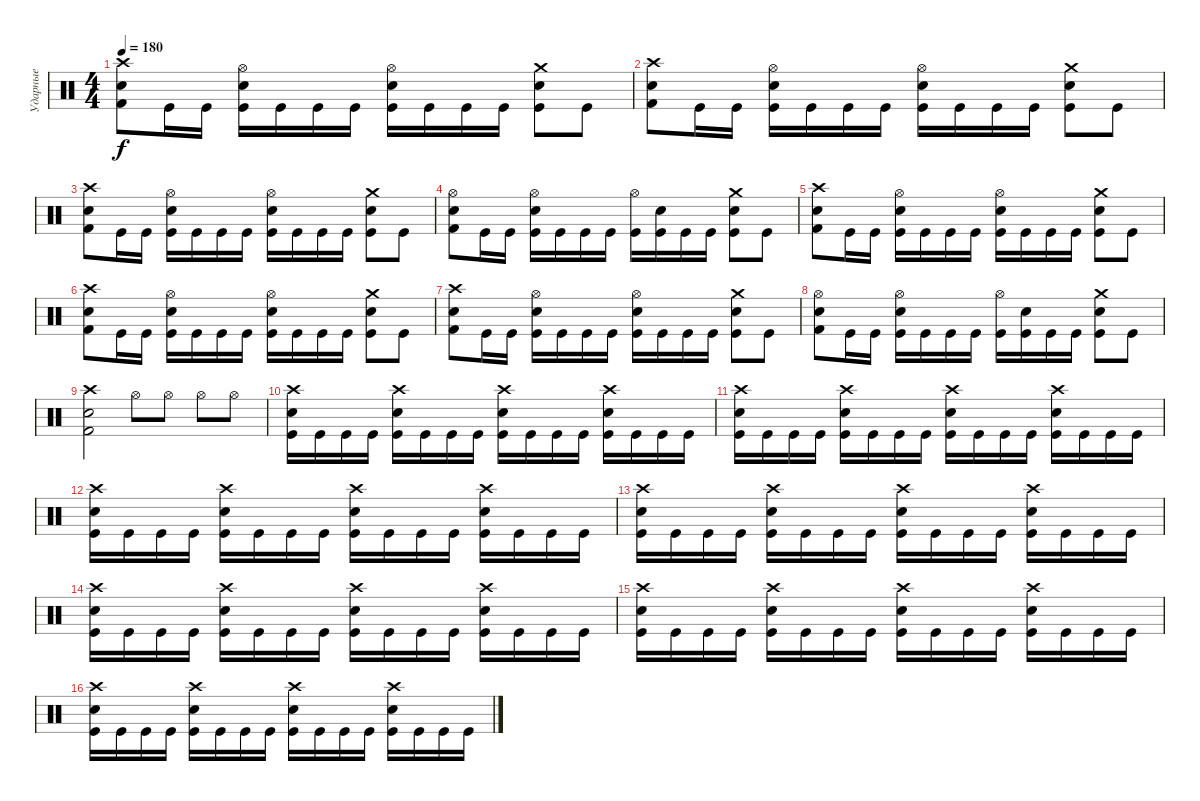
\track ("Ударные" "Ударные") {instrument percussion}
\staff {score}
\articulation defaults
\ts (4 4)
\tempo 180
\clef neutral
\ks c
("Crash high (hit)" "Electric Snare (hit)" "Kick (hit) 2").8{dy f} "Kick (hit)".16 "Kick (hit)".16 ("Hi-Hat (open)" "Electric Snare (hit)" "Kick (hit)").16 "Kick (hit)".16 "Kick (hit)".16 "Kick (hit)".16 ("Hi-Hat (open)" "Electric Snare (hit)" "Kick (hit)").16 "Kick (hit)".16 "Kick (hit)".16 "Kick (hit)".16 ("Crash medium (hit)" "Electric Snare (hit)" "Kick (hit)").8 "Kick (hit)".8 |
("Crash high (hit)" "Electric Snare (hit)" "Kick (hit) 2").8 "Kick (hit)".16 "Kick (hit)".16 ("Hi-Hat (open)" "Electric Snare (hit)" "Kick (hit)").16 "Kick (hit)".16 "Kick (hit)".16 "Kick (hit)".16 ("Hi-Hat (open)" "Electric Snare (hit)" "Kick (hit)").16 "Kick (hit)".16 "Kick (hit)".16 "Kick (hit)".16 ("Crash medium (hit)" "Electric Snare (hit)" "Kick (hit)").8 "Kick (hit)".8 |
("Crash high (hit)" "Electric Snare (hit)" "Kick (hit) 2").8 "Kick (hit)".16 "Kick (hit)".16 ("Hi-Hat (open)" "Electric Snare (hit)" "Kick (hit)").16 "Kick (hit)".16 "Kick (hit)".16 "Kick (hit)".16 ("Hi-Hat (open)" "Electric Snare (hit)" "Kick (hit)").16 "Kick (hit)".16 "Kick (hit)".16 "Kick (hit)".16 ("Crash medium (hit)" "Electric Snare (hit)" "Kick (hit)").8 "Kick (hit)".8 |
("Hi-Hat (open)" "Electric Snare (hit)" "Kick (hit) 2").8 "Kick (hit)".16 "Kick (hit)".16 ("Hi-Hat (open)" "Electric Snare (hit)" "Kick (hit)").16 "Kick (hit)".16 "Kick (hit)".16 "Kick (hit)".16 ("Hi-Hat (open)" "Kick (hit)").16 ("Electric Snare (hit)" "Kick (hit)").16 "Kick (hit)".16 "Kick (hit)".16 ("Crash medium (hit)" "Electric Snare (hit)" "Kick (hit)").8 "Kick (hit)".8 |
("Crash high (hit)" "Electric Snare (hit)" "Kick (hit) 2").8 "Kick (hit)".16 "Kick (hit)".16 ("Hi-Hat (open)" "Electric Snare (hit)" "Kick (hit)").16 "Kick (hit)".16 "Kick (hit)".16 "Kick (hit)".16 ("Hi-Hat (open)" "Electric Snare (hit)" "Kick (hit)").16 "Kick (hit)".16 "Kick (hit)".16 "Kick (hit)".16 ("Crash medium (hit)" "Electric Snare (hit)" "Kick (hit)").8 "Kick (hit)".8 |
("Crash high (hit)" "Electric Snare (hit)" "Kick (hit) 2").8 "Kick (hit)".16 "Kick (hit)".16 ("Hi-Hat (open)" "Electric Snare (hit)" "Kick (hit)").16 "Kick (hit)".16 "Kick (hit)".16 "Kick (hit)".16 ("Hi-Hat (open)" "Electric Snare (hit)" "Kick (hit)").16 "Kick (hit)".16 "Kick (hit)".16 "Kick (hit)".16 ("Crash medium (hit)" "Electric Snare (hit)" "Kick (hit)").8 "Kick (hit)".8 |
("Crash high (hit)" "Electric Snare (hit)" "Kick (hit) 2").8 "Kick (hit)".16 "Kick (hit)".16 ("Hi-Hat (open)" "Electric Snare (hit)" "Kick (hit)").16 "Kick (hit)".16 "Kick (hit)".16 "Kick (hit)".16 ("Hi-Hat (open)" "Electric Snare (hit)" "Kick (hit)").16 "Kick (hit)".16 "Kick (hit)".16 "Kick (hit)".16 ("Crash medium (hit)" "Electric Snare (hit)" "Kick (hit)").8 "Kick (hit)".8 |
("Hi-Hat (open)" "Electric Snare (hit)" "Kick (hit) 2").8 "Kick (hit)".16 "Kick (hit)".16 ("Hi-Hat (open)" "Electric Snare (hit)" "Kick (hit)").16 "Kick (hit)".16 "Kick (hit)".16 "Kick (hit)".16 ("Hi-Hat (open)" "Kick (hit)").16 ("Electric Snare (hit)" "Kick (hit)").16 "Kick (hit)".16 "Kick (hit)".16 ("Crash medium (hit)" "Electric Snare (hit)" "Kick (hit)").8 "Kick (hit)".8 |
("Crash high (hit)" "Electric Snare (hit)" "Kick (hit) 2").2 "Hi-Hat (open)".8 "Hi-Hat (open)".8 "Hi-Hat (open)".8 "Hi-Hat (open)".8 |
("Crash high (hit)" "Electric Snare (hit)" "Kick (hit)").16 "Kick (hit)".16 "Kick (hit)".16 "Kick (hit)".16 ("Crash high (hit)" "Electric Snare (hit)" "Kick (hit)").16 "Kick (hit)".16 "Kick (hit)".16 "Kick (hit)".16 ("Crash high (hit)" "Electric Snare (hit)" "Kick (hit)").16 "Kick (hit)".16 "Kick (hit)".16 "Kick (hit)".16 ("Crash high (hit)" "Electric Snare (hit)" "Kick (hit)").16 "Kick (hit)".16 "Kick (hit)".16 "Kick (hit)".16 |
("Crash high (hit)" "Electric Snare (hit)" "Kick (hit)").16 "Kick (hit)".16 "Kick (hit)".16 "Kick (hit)".16 ("Crash high (hit)" "Electric Snare (hit)" "Kick (hit)").16 "Kick (hit)".16 "Kick (hit)".16 "Kick (hit)".16 ("Crash high (hit)" "Electric Snare (hit)" "Kick (hit)").16 "Kick (hit)".16 "Kick (hit)".16 "Kick (hit)".16 ("Crash high (hit)" "Electric Snare (hit)" "Kick (hit)").16 "Kick (hit)".16 "Kick (hit)".16 "Kick (hit)".16 |
("Crash high (hit)" "Electric Snare (hit)" "Kick (hit)").16 "Kick (hit)".16 "Kick (hit)".16 "Kick (hit)".16 ("Crash high (hit)" "Electric Snare (hit)" "Kick (hit)").16 "Kick (hit)".16 "Kick (hit)".16 "Kick (hit)".16 ("Crash high (hit)" "Electric Snare (hit)" "Kick (hit)").16 "Kick (hit)".16 "Kick (hit)".16 "Kick (hit)".16 ("Crash high (hit)" "Electric Snare (hit)" "Kick (hit)").16 "Kick (hit)".16 "Kick (hit)".16 "Kick (hit)".16 |
("Crash high (hit)" "Electric Snare (hit)" "Kick (hit)").16 "Kick (hit)".16 "Kick (hit)".16 "Kick (hit)".16 ("Crash high (hit)" "Electric Snare (hit)" "Kick (hit)").16 "Kick (hit)".16 "Kick (hit)".16 "Kick (hit)".16 ("Crash high (hit)" "Electric Snare (hit)" "Kick (hit)").16 "Kick (hit)".16 "Kick (hit)".16 "Kick (hit)".16 ("Crash high (hit)" "Electric Snare (hit)" "Kick (hit)").16 "Kick (hit)".16 "Kick (hit)".16 "Kick (hit)".16 |
("Crash high (hit)" "Electric Snare (hit)" "Kick (hit)").16 "Kick (hit)".16 "Kick (hit)".16 "Kick (hit)".16 ("Crash high (hit)" "Electric Snare (hit)" "Kick (hit)").16 "Kick (hit)".16 "Kick (hit)".16 "Kick (hit)".16 ("Crash high (hit)" "Electric Snare (hit)" "Kick (hit)").16 "Kick (hit)".16 "Kick (hit)".16 "Kick (hit)".16 ("Crash high (hit)" "Electric Snare (hit)" "Kick (hit)").16 "Kick (hit)".16 "Kick (hit)".16 "Kick (hit)".16 |
("Crash high (hit)" "Electric Snare (hit)" "Kick (hit)").16 "Kick (hit)".16 "Kick (hit)".16 "Kick (hit)".16 ("Crash high (hit)" "Electric Snare (hit)" "Kick (hit)").16 "Kick (hit)".16 "Kick (hit)".16 "Kick (hit)".16 ("Crash high (hit)" "Electric Snare (hit)" "Kick (hit)").16 "Kick (hit)".16 "Kick (hit)".16 "Kick (hit)".16 ("Crash high (hit)" "Electric Snare (hit)" "Kick (hit)").16 "Kick (hit)".16 "Kick (hit)".16 "Kick (hit)".16 |
("Crash high (hit)" "Electric Snare (hit)" "Kick (hit)").16 "Kick (hit)".16 "Kick (hit)".16 "Kick (hit)".16 ("Crash high (hit)" "Electric Snare (hit)" "Kick (hit)").16 "Kick (hit)".16 "Kick (hit)".16 "Kick (hit)".16 ("Crash high (hit)" "Electric Snare (hit)" "Kick (hit)").16 "Kick (hit)".16 "Kick (hit)".16 "Kick (hit)".16 ("Crash high (hit)" "Electric Snare (hit)" "Kick (hit)").16 "Kick (hit)".16 "Kick (hit)".16 "Kick (hit)".16
